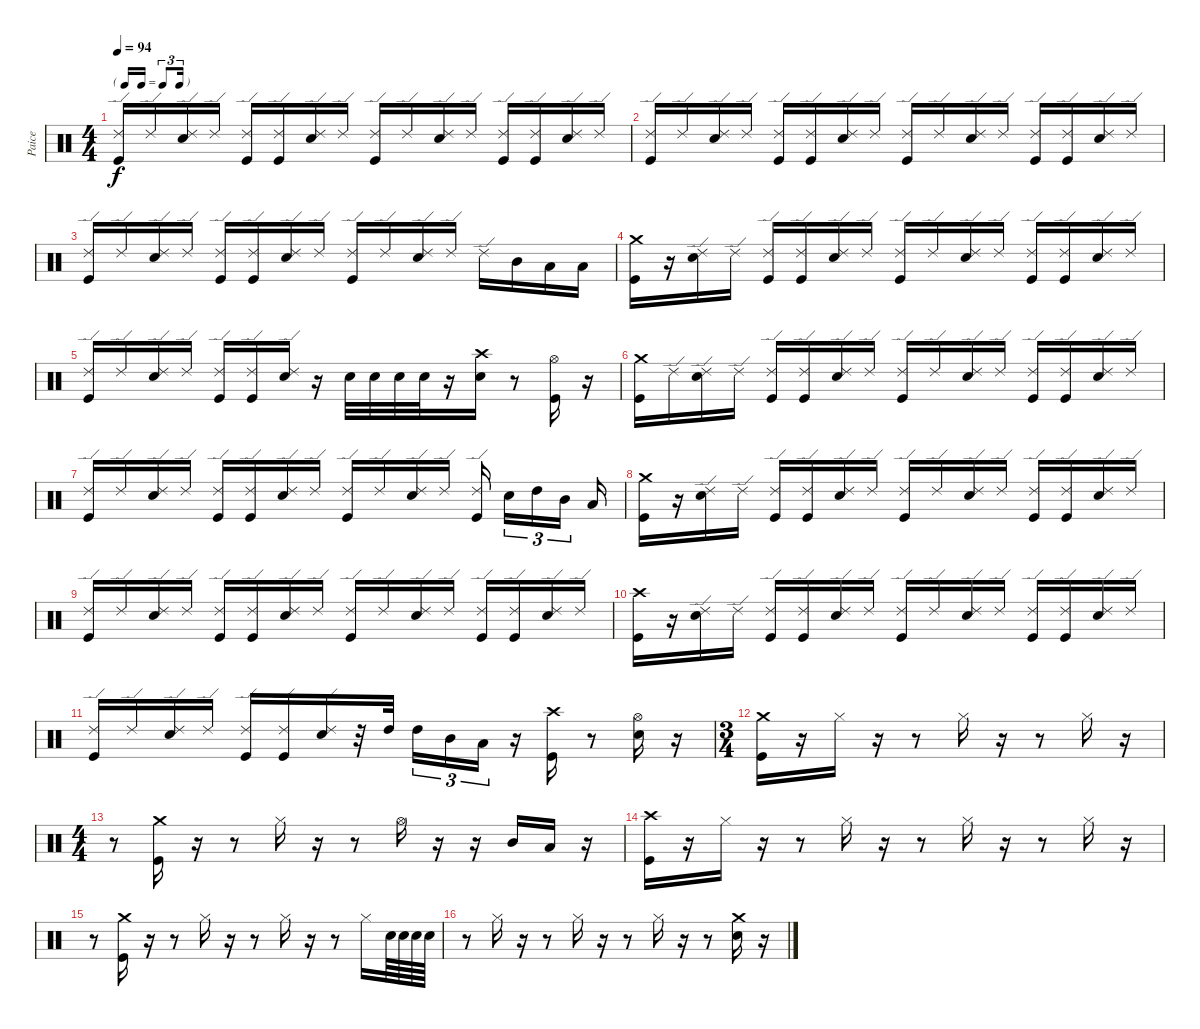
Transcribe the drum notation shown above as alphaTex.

\track ("Paice" "Paice") {instrument percussion}
\staff {score}
\articulation defaults
\ts (4 4)
\tf triplet16th
\tempo 94
\clef neutral
\ks c
("Ride (edge) 2" "Kick (hit)").16{dy f} "Ride (edge) 2".16 ("Ride (edge) 2" "Snare (hit) 2").16 "Ride (edge) 2".16 ("Ride (edge) 2" "Kick (hit)").16 ("Ride (edge) 2" "Kick (hit)").16 ("Ride (edge) 2" "Snare (hit) 2").16 "Ride (edge) 2".16 ("Ride (edge) 2" "Kick (hit)").16 "Ride (edge) 2".16 ("Ride (edge) 2" "Snare (hit) 2").16 "Ride (edge) 2".16 ("Ride (edge) 2" "Kick (hit)").16 ("Ride (edge) 2" "Kick (hit)").16 ("Ride (edge) 2" "Snare (hit) 2").16 "Ride (edge) 2".16 |
("Ride (edge) 2" "Kick (hit)").16 "Ride (edge) 2".16 ("Ride (edge) 2" "Snare (hit) 2").16 "Ride (edge) 2".16 ("Ride (edge) 2" "Kick (hit)").16 ("Ride (edge) 2" "Kick (hit)").16 ("Ride (edge) 2" "Snare (hit) 2").16 "Ride (edge) 2".16 ("Ride (edge) 2" "Kick (hit)").16 "Ride (edge) 2".16 ("Ride (edge) 2" "Snare (hit) 2").16 "Ride (edge) 2".16 ("Ride (edge) 2" "Kick (hit)").16 ("Ride (edge) 2" "Kick (hit)").16 ("Ride (edge) 2" "Snare (hit) 2").16 "Ride (edge) 2".16 |
("Ride (edge) 2" "Kick (hit)").16 "Ride (edge) 2".16 ("Ride (edge) 2" "Snare (hit) 2").16 "Ride (edge) 2".16 ("Ride (edge) 2" "Kick (hit)").16 ("Ride (edge) 2" "Kick (hit)").16 ("Ride (edge) 2" "Snare (hit) 2").16 "Ride (edge) 2".16 ("Ride (edge) 2" "Kick (hit)").16 "Ride (edge) 2".16 ("Ride (edge) 2" "Snare (hit) 2").16 "Ride (edge) 2".16 "Ride (edge) 2".16 "Mid Tom (hit)".16 "Low Tom (hit)".16 "Low Tom (hit)".16 |
("Crash medium (hit)" "Kick (hit)").16 r.16 ("Ride (edge) 2" "Snare (hit) 2").16 "Ride (edge) 2".16 ("Ride (edge) 2" "Kick (hit)").16 ("Ride (edge) 2" "Kick (hit)").16 ("Ride (edge) 2" "Snare (hit) 2").16 "Ride (edge) 2".16 ("Ride (edge) 2" "Kick (hit)").16 "Ride (edge) 2".16 ("Ride (edge) 2" "Snare (hit) 2").16 "Ride (edge) 2".16 ("Ride (edge) 2" "Kick (hit)").16 ("Ride (edge) 2" "Kick (hit)").16 ("Ride (edge) 2" "Snare (hit) 2").16 "Ride (edge) 2".16 |
("Ride (edge) 2" "Kick (hit)").16 "Ride (edge) 2".16 ("Ride (edge) 2" "Snare (hit) 2").16 "Ride (edge) 2".16 ("Ride (edge) 2" "Kick (hit)").16 ("Ride (edge) 2" "Kick (hit)").16 ("Ride (edge) 2" "Snare (hit) 2").16 r.16 "Snare (hit) 2".32 "Snare (hit) 2".32 "Snare (hit) 2".32 "Snare (hit) 2".32 r.16 ("Snare (hit) 2" "Crash high (hit)").16 r.8 ("Hi-Hat (open)" "Kick (hit)").16 r.16 |
("Crash medium (hit)" "Kick (hit)").16 "Ride (edge) 2".16 ("Ride (edge) 2" "Snare (hit) 2").16 "Ride (edge) 2".16 ("Ride (edge) 2" "Kick (hit)").16 ("Ride (edge) 2" "Kick (hit)").16 ("Ride (edge) 2" "Snare (hit) 2").16 "Ride (edge) 2".16 ("Ride (edge) 2" "Kick (hit)").16 "Ride (edge) 2".16 ("Ride (edge) 2" "Snare (hit) 2").16 "Ride (edge) 2".16 ("Ride (edge) 2" "Kick (hit)").16 ("Ride (edge) 2" "Kick (hit)").16 ("Ride (edge) 2" "Snare (hit) 2").16 "Ride (edge) 2".16 |
("Ride (edge) 2" "Kick (hit)").16 "Ride (edge) 2".16 ("Ride (edge) 2" "Snare (hit) 2").16 "Ride (edge) 2".16 ("Ride (edge) 2" "Kick (hit)").16 ("Ride (edge) 2" "Kick (hit)").16 ("Ride (edge) 2" "Snare (hit) 2").16 "Ride (edge) 2".16 ("Ride (edge) 2" "Kick (hit)").16 "Ride (edge) 2".16 ("Ride (edge) 2" "Snare (hit) 2").16 "Ride (edge) 2".16 ("Ride (edge) 2" "Kick (hit)").16{beam splitsecondary} "Snare (hit) 2".16{tu (3 2)} "High Tom (hit)".16{tu (3 2)} "Mid Tom (hit)".16{tu (3 2) beam splitsecondary} "Low Tom (hit)".16 |
("Crash medium (hit)" "Kick (hit)").16 r.16 ("Ride (edge) 2" "Snare (hit) 2").16 "Ride (edge) 2".16 ("Ride (edge) 2" "Kick (hit)").16 ("Ride (edge) 2" "Kick (hit)").16 ("Ride (edge) 2" "Snare (hit) 2").16 "Ride (edge) 2".16 ("Ride (edge) 2" "Kick (hit)").16 "Ride (edge) 2".16 ("Ride (edge) 2" "Snare (hit) 2").16 "Ride (edge) 2".16 ("Ride (edge) 2" "Kick (hit)").16 ("Ride (edge) 2" "Kick (hit)").16 ("Ride (edge) 2" "Snare (hit) 2").16 "Ride (edge) 2".16 |
("Ride (edge) 2" "Kick (hit)").16 "Ride (edge) 2".16 ("Ride (edge) 2" "Snare (hit) 2").16 "Ride (edge) 2".16 ("Ride (edge) 2" "Kick (hit)").16 ("Ride (edge) 2" "Kick (hit)").16 ("Ride (edge) 2" "Snare (hit) 2").16 "Ride (edge) 2".16 ("Ride (edge) 2" "Kick (hit)").16 "Ride (edge) 2".16 ("Ride (edge) 2" "Snare (hit) 2").16 "Ride (edge) 2".16 ("Ride (edge) 2" "Kick (hit)").16 ("Ride (edge) 2" "Kick (hit)").16 ("Ride (edge) 2" "Snare (hit) 2").16 "Ride (edge) 2".16 |
("Crash high (hit)" "Kick (hit)").16 r.16 ("Ride (edge) 2" "Snare (hit) 2").16 "Ride (edge) 2".16 ("Ride (edge) 2" "Kick (hit)").16 ("Ride (edge) 2" "Kick (hit)").16 ("Ride (edge) 2" "Snare (hit) 2").16 "Ride (edge) 2".16 ("Ride (edge) 2" "Kick (hit)").16 "Ride (edge) 2".16 ("Ride (edge) 2" "Snare (hit) 2").16 "Ride (edge) 2".16 ("Ride (edge) 2" "Kick (hit)").16 ("Ride (edge) 2" "Kick (hit)").16 ("Ride (edge) 2" "Snare (hit) 2").16 "Ride (edge) 2".16 |
("Ride (edge) 2" "Kick (hit)").16 "Ride (edge) 2".16 ("Ride (edge) 2" "Snare (hit) 2").16 "Ride (edge) 2".16 ("Ride (edge) 2" "Kick (hit)").16 ("Ride (edge) 2" "Kick (hit)").16 ("Ride (edge) 2" "Snare (hit) 2").16 r.32 "High Tom (hit)".32 "High Tom (hit)".16{tu (3 2)} "Mid Tom (hit)".16{tu (3 2)} "Low Tom (hit)".16{tu (3 2)} r.16 ("Crash high (hit)" "Kick (hit)").16 r.8 ("Hi-Hat (open)" "Snare (hit) 2").16 r.16 |
\ts (3 4)
("Crash medium (hit)" "Kick (hit)").16 r.16 "Hi-Hat (closed)".16 r.16 r.8 "Hi-Hat (closed)".16 r.16 r.8 "Hi-Hat (closed)".16 r.16 |
\ts (4 4)
r.8 ("Crash medium (hit)" "Kick (hit)").16 r.16 r.8 "Hi-Hat (closed)".16 r.16 r.8 "Hi-Hat (open)".16 r.16 r.16 "Mid Tom (hit)".16 "Low Tom (hit)".16 r.16 |
("Crash high (hit)" "Kick (hit)").16 r.16 "Hi-Hat (closed)".16 r.16 r.8 "Hi-Hat (closed)".16 r.16 r.8 "Hi-Hat (closed)".16 r.16 r.8 "Hi-Hat (closed)".16 r.16 |
r.8 ("Crash medium (hit)" "Kick (hit)").16 r.16 r.8 "Hi-Hat (closed)".16 r.16 r.8 "Hi-Hat (closed)".16 r.16 r.8 "Hi-Hat (closed)".16 "Snare (hit) 2".64 "Snare (hit) 2".64 "Snare (hit) 2".64 "Snare (hit) 2".64 |
r.8 "Hi-Hat (closed)".16 r.16 r.8 "Hi-Hat (closed)".16 r.16 r.8 "Hi-Hat (closed)".16 r.16 r.8 ("Crash medium (hit)" "Snare (hit) 2").16 r.16
